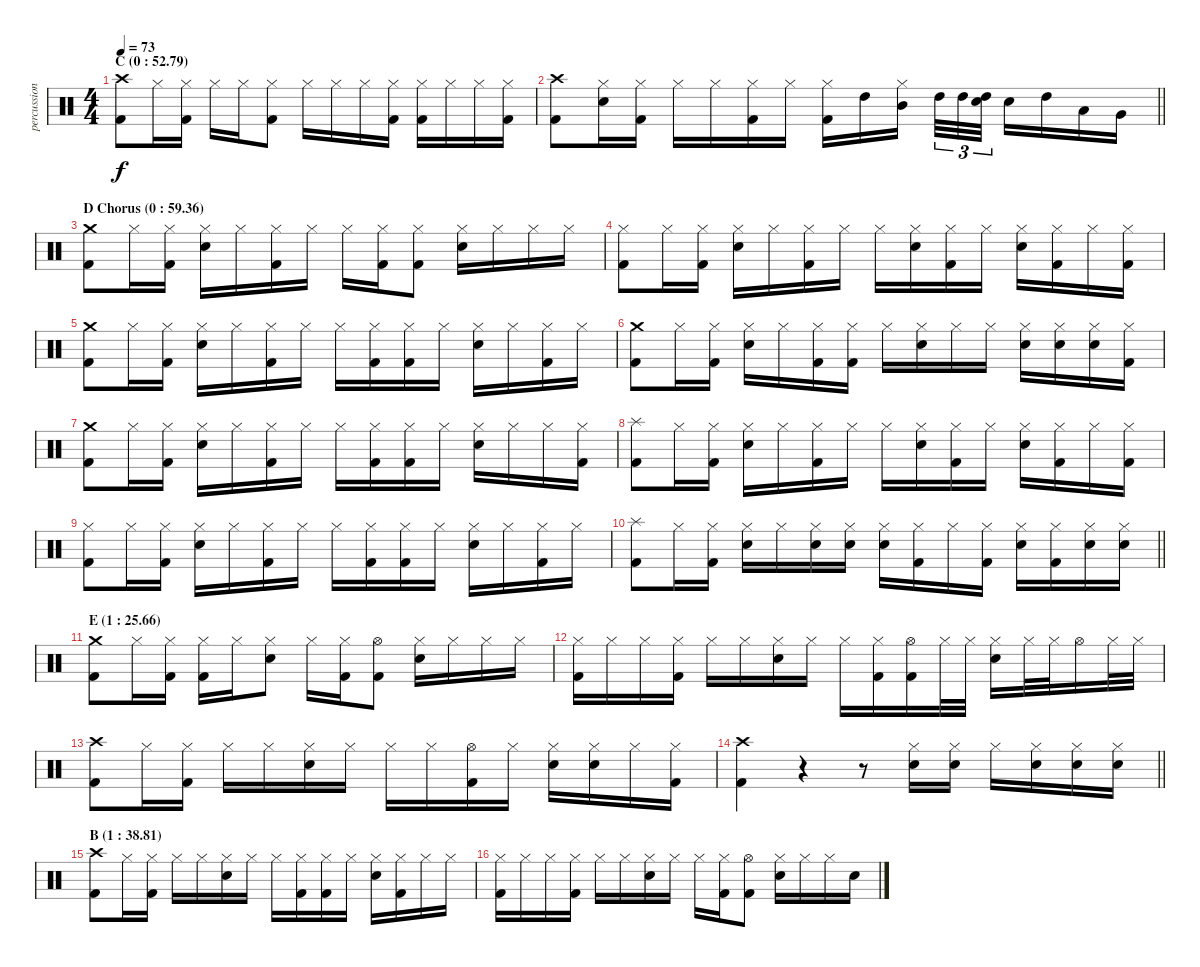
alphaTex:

\track ("percussion" "percussion") {instrument percussion}
\staff {score}
\articulation defaults
\ts (4 4)
\section ("" "C (0 : 52.79)")
\tempo 73
\clef neutral
\ks c
("Crash high (hit)" "Kick (hit) 2").8{dy f} "Hi-Hat (closed)".16 ("Hi-Hat (closed)" "Kick (hit) 2").16 "Hi-Hat (closed)".16 "Hi-Hat (closed)".16 ("Hi-Hat (closed)" "Kick (hit) 2").8 "Hi-Hat (closed)".16 "Hi-Hat (closed)".16 "Hi-Hat (closed)".16 ("Hi-Hat (closed)" "Kick (hit) 2").16 ("Hi-Hat (closed)" "Kick (hit) 2").16 "Hi-Hat (closed)".16 "Hi-Hat (closed)".16 ("Hi-Hat (closed)" "Kick (hit) 2").16 |
\barLineRight lightlight
("Crash high (hit)" "Kick (hit) 2").8 ("Snare (hit) 2" "Hi-Hat (closed)").16 ("Hi-Hat (closed)" "Kick (hit) 2").16 "Hi-Hat (closed)".16 "Hi-Hat (closed)".16 ("Hi-Hat (closed)" "Kick (hit) 2").16 "Hi-Hat (closed)".16 ("Hi-Hat (closed)" "Kick (hit) 2").16 "High Tom (hit)".16 ("Mid Tom (hit)" "Hi-Hat (closed)").16{beam splitsecondary} "High Tom (hit)".32{tu (3 2)} "High Tom (hit)".32{tu (3 2)} ("High Tom (hit)" "Snare (hit) 2").32{tu (3 2)} "Snare (hit) 2".16 "High Tom (hit)".16 "Low Tom (hit)".16 "Very Low Tom (hit)".16 |
\section ("" "D Chorus (0 : 59.36)")
("Crash medium (hit)" "Kick (hit) 2").8 "Hi-Hat (closed)".16 ("Hi-Hat (closed)" "Kick (hit) 2").16 ("Snare (hit) 2" "Hi-Hat (closed)").16 "Hi-Hat (closed)".16 ("Hi-Hat (closed)" "Kick (hit) 2").16 "Hi-Hat (closed)".16 "Hi-Hat (closed)".16 ("Hi-Hat (closed)" "Kick (hit) 2").16 ("Hi-Hat (closed)" "Kick (hit) 2").8 ("Snare (hit) 2" "Hi-Hat (closed)").16 "Hi-Hat (closed)".16 "Hi-Hat (closed)".16 "Hi-Hat (closed)".16 |
("Hi-Hat (closed)" "Kick (hit) 2").8 "Hi-Hat (closed)".16 ("Hi-Hat (closed)" "Kick (hit) 2").16 ("Snare (hit) 2" "Hi-Hat (closed)").16 "Hi-Hat (closed)".16 ("Hi-Hat (closed)" "Kick (hit) 2").16 "Hi-Hat (closed)".16 "Hi-Hat (closed)".16 ("Snare (hit) 2" "Hi-Hat (closed)").16 ("Hi-Hat (closed)" "Kick (hit) 2").16 "Hi-Hat (closed)".16 ("Snare (hit) 2" "Hi-Hat (closed)").16 ("Hi-Hat (closed)" "Kick (hit) 2").16 "Hi-Hat (closed)".16 ("Hi-Hat (closed)" "Kick (hit) 2").16 |
("Crash medium (hit)" "Kick (hit) 2").8 "Hi-Hat (closed)".16 ("Hi-Hat (closed)" "Kick (hit) 2").16 ("Snare (hit) 2" "Hi-Hat (closed)").16 "Hi-Hat (closed)".16 ("Hi-Hat (closed)" "Kick (hit) 2").16 "Hi-Hat (closed)".16 "Hi-Hat (closed)".16 ("Hi-Hat (closed)" "Kick (hit) 2").16 ("Hi-Hat (closed)" "Kick (hit) 2").16 "Hi-Hat (closed)".16 ("Snare (hit) 2" "Hi-Hat (closed)").16 "Hi-Hat (closed)".16 ("Hi-Hat (closed)" "Kick (hit) 2").16 "Hi-Hat (closed)".16 |
("Crash medium (hit)" "Kick (hit) 2").8 "Hi-Hat (closed)".16 ("Hi-Hat (closed)" "Kick (hit) 2").16 ("Snare (hit) 2" "Hi-Hat (closed)").16 "Hi-Hat (closed)".16 ("Hi-Hat (closed)" "Kick (hit) 2").16 ("Hi-Hat (closed)" "Kick (hit) 2").16 "Hi-Hat (closed)".16 ("Snare (hit) 2" "Hi-Hat (closed)").16 "Hi-Hat (closed)".16 "Hi-Hat (closed)".16 ("Snare (hit) 2" "Hi-Hat (closed)").16 ("Snare (hit) 2" "Hi-Hat (closed)").16 ("Snare (hit) 2" "Hi-Hat (closed)").16 ("Hi-Hat (closed)" "Kick (hit) 2").16 |
("Crash medium (hit)" "Kick (hit) 2").8 "Hi-Hat (closed)".16 ("Hi-Hat (closed)" "Kick (hit) 2").16 ("Snare (hit) 2" "Hi-Hat (closed)").16 "Hi-Hat (closed)".16 ("Hi-Hat (closed)" "Kick (hit) 2").16 "Hi-Hat (closed)".16 "Hi-Hat (closed)".16 ("Hi-Hat (closed)" "Kick (hit) 2").16 ("Hi-Hat (closed)" "Kick (hit) 2").16 "Hi-Hat (closed)".16 ("Snare (hit) 2" "Hi-Hat (closed)").16 "Hi-Hat (closed)".16 "Hi-Hat (closed)".16 ("Hi-Hat (closed)" "Kick (hit) 2").16 |
("Splash (hit)" "Kick (hit) 2").8 "Hi-Hat (closed)".16 ("Hi-Hat (closed)" "Kick (hit) 2").16 ("Snare (hit) 2" "Hi-Hat (closed)").16 "Hi-Hat (closed)".16 ("Hi-Hat (closed)" "Kick (hit) 2").16 "Hi-Hat (closed)".16 "Hi-Hat (closed)".16 ("Snare (hit) 2" "Hi-Hat (closed)").16 ("Hi-Hat (closed)" "Kick (hit) 2").16 "Hi-Hat (closed)".16 ("Snare (hit) 2" "Hi-Hat (closed)").16 ("Hi-Hat (closed)" "Kick (hit) 2").16 "Hi-Hat (closed)".16 ("Hi-Hat (closed)" "Kick (hit) 2").16 |
("Hi-Hat (closed)" "Kick (hit) 2").8 "Hi-Hat (closed)".16 ("Hi-Hat (closed)" "Kick (hit) 2").16 ("Snare (hit) 2" "Hi-Hat (closed)").16 "Hi-Hat (closed)".16 ("Hi-Hat (closed)" "Kick (hit) 2").16 "Hi-Hat (closed)".16 "Hi-Hat (closed)".16 ("Hi-Hat (closed)" "Kick (hit) 2").16 ("Hi-Hat (closed)" "Kick (hit) 2").16 "Hi-Hat (closed)".16 ("Snare (hit) 2" "Hi-Hat (closed)").16 "Hi-Hat (closed)".16 ("Hi-Hat (closed)" "Kick (hit) 2").16 "Hi-Hat (closed)".16 |
\barLineRight lightlight
("Splash (hit)" "Kick (hit) 2").8 "Hi-Hat (closed)".16 ("Hi-Hat (closed)" "Kick (hit) 2").16 ("Snare (hit) 2" "Hi-Hat (closed)").16 "Hi-Hat (closed)".16 ("Snare (hit) 2" "Hi-Hat (closed)").16 ("Snare (hit) 2" "Hi-Hat (closed)").16 ("Snare (hit) 2" "Hi-Hat (closed)").16 ("Hi-Hat (closed)" "Kick (hit) 2").16 "Hi-Hat (closed)".16 ("Hi-Hat (closed)" "Kick (hit) 2").16 ("Snare (hit) 2" "Hi-Hat (closed)").16 ("Hi-Hat (closed)" "Kick (hit) 2").16 ("Snare (hit) 2" "Hi-Hat (closed)").16 ("Snare (hit) 2" "Hi-Hat (closed)").16 |
\section ("" "E (1 : 25.66)")
("Crash medium (hit)" "Kick (hit) 2").8 "Hi-Hat (closed)".16 ("Hi-Hat (closed)" "Kick (hit) 2").16 ("Hi-Hat (closed)" "Kick (hit) 2").16 "Hi-Hat (closed)".16 ("Snare (hit) 2" "Hi-Hat (closed)").8 "Hi-Hat (closed)".16 ("Hi-Hat (closed)" "Kick (hit) 2").16 ("Hi-Hat (open)" "Kick (hit) 2").8 ("Snare (hit) 2" "Hi-Hat (closed)").16 "Hi-Hat (closed)".16 "Hi-Hat (closed)".16 "Hi-Hat (closed)".16 |
("Hi-Hat (closed)" "Kick (hit) 2").16 "Hi-Hat (closed)".16 "Hi-Hat (closed)".16 ("Hi-Hat (closed)" "Kick (hit) 2").16 "Hi-Hat (closed)".16 "Hi-Hat (closed)".16 ("Snare (hit) 2" "Hi-Hat (closed)").16 "Hi-Hat (closed)".16 "Hi-Hat (closed)".16 ("Hi-Hat (closed)" "Kick (hit) 2").16 ("Hi-Hat (open)" "Kick (hit) 2").16 "Hi-Hat (closed)".32 "Hi-Hat (closed)".32 ("Snare (hit) 2" "Hi-Hat (closed)").16 "Hi-Hat (closed)".32 "Hi-Hat (closed)".32 "Hi-Hat (open)".16 "Hi-Hat (closed)".32 "Hi-Hat (closed)".32 |
("Crash high (hit)" "Kick (hit) 2").8 "Hi-Hat (closed)".16 ("Hi-Hat (closed)" "Kick (hit) 2").16 "Hi-Hat (closed)".16 "Hi-Hat (closed)".16 ("Snare (hit) 2" "Hi-Hat (closed)").16 "Hi-Hat (closed)".16 "Hi-Hat (closed)".16 "Hi-Hat (closed)".16 ("Hi-Hat (open)" "Kick (hit) 2").16 "Hi-Hat (closed)".16 ("Snare (hit) 2" "Hi-Hat (closed)").16 ("Snare (hit) 2" "Hi-Hat (closed)").16 "Hi-Hat (closed)".16 ("Hi-Hat (closed)" "Kick (hit) 2").16 |
\barLineRight lightlight
("Crash high (hit)" "Kick (hit) 2").4 r.4 r.8 ("Snare (hit) 2" "Hi-Hat (closed)").16 ("Snare (hit) 2" "Hi-Hat (closed)").16 "Hi-Hat (closed)".16 ("Snare (hit) 2" "Hi-Hat (closed)").16 ("Snare (hit) 2" "Hi-Hat (closed)").16 ("Snare (hit) 2" "Hi-Hat (closed)").16 |
\section ("" "B (1 : 38.81)")
("Crash high (hit)" "Kick (hit) 2").8 "Hi-Hat (closed)".16 ("Hi-Hat (closed)" "Kick (hit) 2").16 "Hi-Hat (closed)".16 "Hi-Hat (closed)".16 ("Snare (hit) 2" "Hi-Hat (closed)").16 "Hi-Hat (closed)".16 "Hi-Hat (closed)".16 ("Hi-Hat (closed)" "Kick (hit) 2").16 ("Hi-Hat (closed)" "Kick (hit) 2").16 "Hi-Hat (closed)".16 ("Snare (hit) 2" "Hi-Hat (closed)").16 ("Hi-Hat (closed)" "Kick (hit) 2").16 "Hi-Hat (closed)".16 "Hi-Hat (closed)".16 |
("Hi-Hat (closed)" "Kick (hit) 2").16 "Hi-Hat (closed)".16 "Hi-Hat (closed)".16 ("Hi-Hat (closed)" "Kick (hit) 2").16 "Hi-Hat (closed)".16 "Hi-Hat (closed)".16 ("Snare (hit) 2" "Hi-Hat (closed)").16 "Hi-Hat (closed)".16 "Hi-Hat (closed)".16 ("Hi-Hat (closed)" "Kick (hit) 2").16 ("Hi-Hat (open)" "Kick (hit) 2").8 ("Snare (hit) 2" "Hi-Hat (closed)").16 "Hi-Hat (closed)".16 "Hi-Hat (closed)".16 "Snare (hit) 2".16
